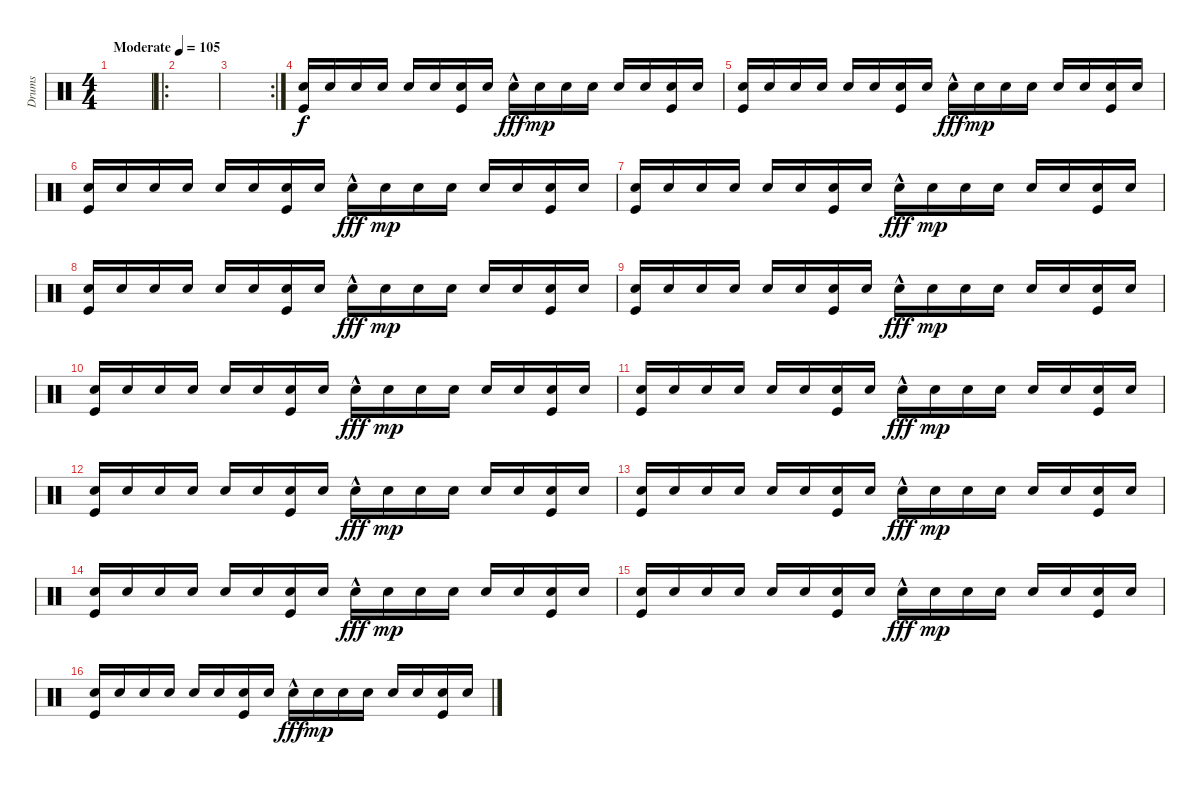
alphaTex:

\track ("Drums" "Drums") {instrument percussion}
\staff {score}
\articulation defaults
\ts (4 4)
\tempo (105 "Moderate")
\clef neutral
\ks c
|
\ro
|
\rc 2
|
("Snare (hit) 2" "Kick (hit)").16 "Snare (hit) 2".16 "Snare (hit) 2".16 "Snare (hit) 2".16 "Snare (hit) 2".16 "Snare (hit) 2".16 ("Snare (hit) 2" "Kick (hit)").16 "Snare (hit) 2".16 "Snare (hit) 2"{hac}.16{dy fff} "Snare (hit) 2".16{dy mp} "Snare (hit) 2".16 "Snare (hit) 2".16 "Snare (hit) 2".16 "Snare (hit) 2".16 ("Snare (hit) 2" "Kick (hit)").16 "Snare (hit) 2".16 |
("Snare (hit) 2" "Kick (hit)").16 "Snare (hit) 2".16 "Snare (hit) 2".16 "Snare (hit) 2".16 "Snare (hit) 2".16 "Snare (hit) 2".16 ("Snare (hit) 2" "Kick (hit)").16 "Snare (hit) 2".16 "Snare (hit) 2"{hac}.16{dy fff} "Snare (hit) 2".16{dy mp} "Snare (hit) 2".16 "Snare (hit) 2".16 "Snare (hit) 2".16 "Snare (hit) 2".16 ("Snare (hit) 2" "Kick (hit)").16 "Snare (hit) 2".16 |
("Snare (hit) 2" "Kick (hit)").16 "Snare (hit) 2".16 "Snare (hit) 2".16 "Snare (hit) 2".16 "Snare (hit) 2".16 "Snare (hit) 2".16 ("Snare (hit) 2" "Kick (hit)").16 "Snare (hit) 2".16 "Snare (hit) 2"{hac}.16{dy fff} "Snare (hit) 2".16{dy mp} "Snare (hit) 2".16 "Snare (hit) 2".16 "Snare (hit) 2".16 "Snare (hit) 2".16 ("Snare (hit) 2" "Kick (hit)").16 "Snare (hit) 2".16 |
("Snare (hit) 2" "Kick (hit)").16 "Snare (hit) 2".16 "Snare (hit) 2".16 "Snare (hit) 2".16 "Snare (hit) 2".16 "Snare (hit) 2".16 ("Snare (hit) 2" "Kick (hit)").16 "Snare (hit) 2".16 "Snare (hit) 2"{hac}.16{dy fff} "Snare (hit) 2".16{dy mp} "Snare (hit) 2".16 "Snare (hit) 2".16 "Snare (hit) 2".16 "Snare (hit) 2".16 ("Snare (hit) 2" "Kick (hit)").16 "Snare (hit) 2".16 |
("Snare (hit) 2" "Kick (hit)").16 "Snare (hit) 2".16 "Snare (hit) 2".16 "Snare (hit) 2".16 "Snare (hit) 2".16 "Snare (hit) 2".16 ("Snare (hit) 2" "Kick (hit)").16 "Snare (hit) 2".16 "Snare (hit) 2"{hac}.16{dy fff} "Snare (hit) 2".16{dy mp} "Snare (hit) 2".16 "Snare (hit) 2".16 "Snare (hit) 2".16 "Snare (hit) 2".16 ("Snare (hit) 2" "Kick (hit)").16 "Snare (hit) 2".16 |
("Snare (hit) 2" "Kick (hit)").16 "Snare (hit) 2".16 "Snare (hit) 2".16 "Snare (hit) 2".16 "Snare (hit) 2".16 "Snare (hit) 2".16 ("Snare (hit) 2" "Kick (hit)").16 "Snare (hit) 2".16 "Snare (hit) 2"{hac}.16{dy fff} "Snare (hit) 2".16{dy mp} "Snare (hit) 2".16 "Snare (hit) 2".16 "Snare (hit) 2".16 "Snare (hit) 2".16 ("Snare (hit) 2" "Kick (hit)").16 "Snare (hit) 2".16 |
("Snare (hit) 2" "Kick (hit)").16 "Snare (hit) 2".16 "Snare (hit) 2".16 "Snare (hit) 2".16 "Snare (hit) 2".16 "Snare (hit) 2".16 ("Snare (hit) 2" "Kick (hit)").16 "Snare (hit) 2".16 "Snare (hit) 2"{hac}.16{dy fff} "Snare (hit) 2".16{dy mp} "Snare (hit) 2".16 "Snare (hit) 2".16 "Snare (hit) 2".16 "Snare (hit) 2".16 ("Snare (hit) 2" "Kick (hit)").16 "Snare (hit) 2".16 |
("Snare (hit) 2" "Kick (hit)").16 "Snare (hit) 2".16 "Snare (hit) 2".16 "Snare (hit) 2".16 "Snare (hit) 2".16 "Snare (hit) 2".16 ("Snare (hit) 2" "Kick (hit)").16 "Snare (hit) 2".16 "Snare (hit) 2"{hac}.16{dy fff} "Snare (hit) 2".16{dy mp} "Snare (hit) 2".16 "Snare (hit) 2".16 "Snare (hit) 2".16 "Snare (hit) 2".16 ("Snare (hit) 2" "Kick (hit)").16 "Snare (hit) 2".16 |
("Snare (hit) 2" "Kick (hit)").16 "Snare (hit) 2".16 "Snare (hit) 2".16 "Snare (hit) 2".16 "Snare (hit) 2".16 "Snare (hit) 2".16 ("Snare (hit) 2" "Kick (hit)").16 "Snare (hit) 2".16 "Snare (hit) 2"{hac}.16{dy fff} "Snare (hit) 2".16{dy mp} "Snare (hit) 2".16 "Snare (hit) 2".16 "Snare (hit) 2".16 "Snare (hit) 2".16 ("Snare (hit) 2" "Kick (hit)").16 "Snare (hit) 2".16 |
("Snare (hit) 2" "Kick (hit)").16 "Snare (hit) 2".16 "Snare (hit) 2".16 "Snare (hit) 2".16 "Snare (hit) 2".16 "Snare (hit) 2".16 ("Snare (hit) 2" "Kick (hit)").16 "Snare (hit) 2".16 "Snare (hit) 2"{hac}.16{dy fff} "Snare (hit) 2".16{dy mp} "Snare (hit) 2".16 "Snare (hit) 2".16 "Snare (hit) 2".16 "Snare (hit) 2".16 ("Snare (hit) 2" "Kick (hit)").16 "Snare (hit) 2".16 |
("Snare (hit) 2" "Kick (hit)").16 "Snare (hit) 2".16 "Snare (hit) 2".16 "Snare (hit) 2".16 "Snare (hit) 2".16 "Snare (hit) 2".16 ("Snare (hit) 2" "Kick (hit)").16 "Snare (hit) 2".16 "Snare (hit) 2"{hac}.16{dy fff} "Snare (hit) 2".16{dy mp} "Snare (hit) 2".16 "Snare (hit) 2".16 "Snare (hit) 2".16 "Snare (hit) 2".16 ("Snare (hit) 2" "Kick (hit)").16 "Snare (hit) 2".16 |
("Snare (hit) 2" "Kick (hit)").16 "Snare (hit) 2".16 "Snare (hit) 2".16 "Snare (hit) 2".16 "Snare (hit) 2".16 "Snare (hit) 2".16 ("Snare (hit) 2" "Kick (hit)").16 "Snare (hit) 2".16 "Snare (hit) 2"{hac}.16{dy fff} "Snare (hit) 2".16{dy mp} "Snare (hit) 2".16 "Snare (hit) 2".16 "Snare (hit) 2".16 "Snare (hit) 2".16 ("Snare (hit) 2" "Kick (hit)").16 "Snare (hit) 2".16 |
("Snare (hit) 2" "Kick (hit)").16 "Snare (hit) 2".16 "Snare (hit) 2".16 "Snare (hit) 2".16 "Snare (hit) 2".16 "Snare (hit) 2".16 ("Snare (hit) 2" "Kick (hit)").16 "Snare (hit) 2".16 "Snare (hit) 2"{hac}.16{dy fff} "Snare (hit) 2".16{dy mp} "Snare (hit) 2".16 "Snare (hit) 2".16 "Snare (hit) 2".16 "Snare (hit) 2".16 ("Snare (hit) 2" "Kick (hit)").16 "Snare (hit) 2".16
